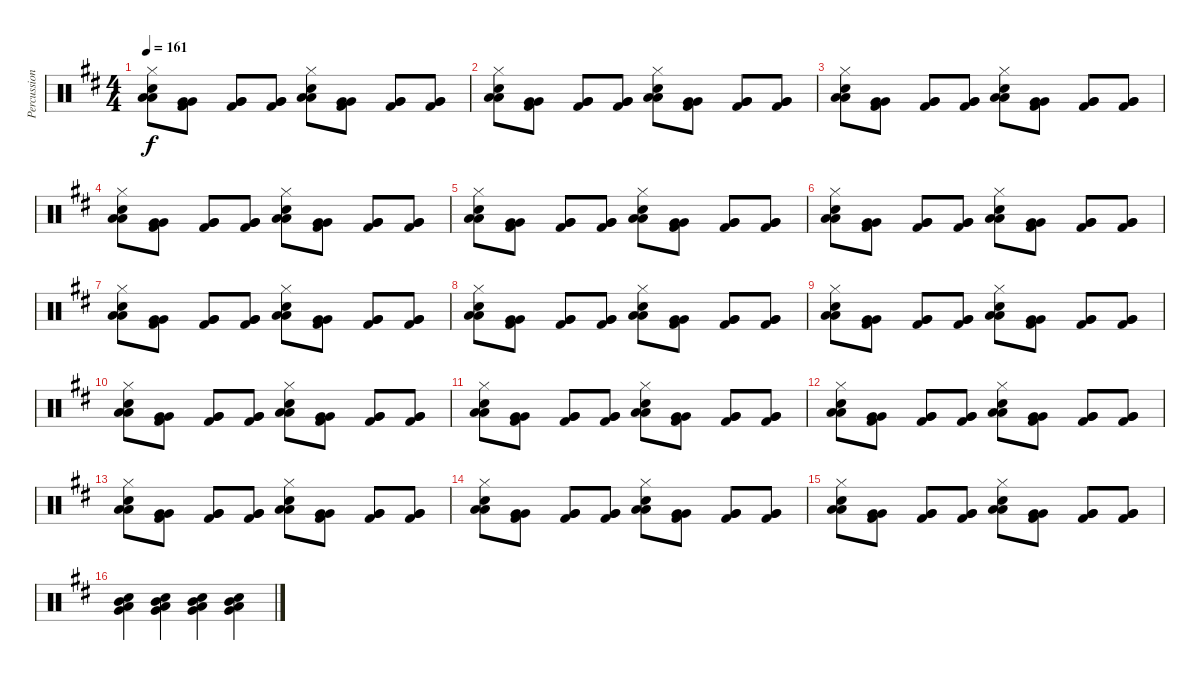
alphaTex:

\track ("Percussion" "Percussion") {instrument percussion}
\staff {score}
\articulation defaults
\ts (4 4)
\tempo 161
\clef neutral
\ks d
("Hi-Hat (closed)" "Low Floor Tom (hit)" "Low Floor Tom (hit)" "Electric Snare (hit)").8{dy f} ("Kick (hit) 2" "Very Low Tom (hit)" "Very Low Tom (hit)").8 ("Kick (hit) 2" "Very Low Tom (hit)" "Very Low Tom (hit)").8 ("Kick (hit) 2" "Very Low Tom (hit)" "Very Low Tom (hit)").8 ("Hi-Hat (closed)" "Low Tom (hit)" "Low Tom (hit)" "Electric Snare (hit)").8 ("Kick (hit) 2" "Very Low Tom (hit)" "Very Low Tom (hit)").8 ("Kick (hit) 2" "Very Low Tom (hit)" "Very Low Tom (hit)").8 ("Kick (hit) 2" "Very Low Tom (hit)" "Very Low Tom (hit)").8 |
("Hi-Hat (closed)" "Low Floor Tom (hit)" "Low Floor Tom (hit)" "Electric Snare (hit)").8 ("Kick (hit) 2" "Very Low Tom (hit)" "Very Low Tom (hit)").8 ("Kick (hit) 2" "Very Low Tom (hit)" "Very Low Tom (hit)").8 ("Kick (hit) 2" "Very Low Tom (hit)" "Very Low Tom (hit)").8 ("Hi-Hat (closed)" "Low Tom (hit)" "Low Tom (hit)" "Electric Snare (hit)").8 ("Kick (hit) 2" "Very Low Tom (hit)" "Very Low Tom (hit)").8 ("Kick (hit) 2" "Very Low Tom (hit)" "Very Low Tom (hit)").8 ("Kick (hit) 2" "Very Low Tom (hit)" "Very Low Tom (hit)").8 |
("Hi-Hat (closed)" "Low Floor Tom (hit)" "Low Floor Tom (hit)" "Electric Snare (hit)").8 ("Kick (hit) 2" "Very Low Tom (hit)" "Very Low Tom (hit)").8 ("Kick (hit) 2" "Very Low Tom (hit)" "Very Low Tom (hit)").8 ("Kick (hit) 2" "Very Low Tom (hit)" "Very Low Tom (hit)").8 ("Hi-Hat (closed)" "Low Tom (hit)" "Low Tom (hit)" "Electric Snare (hit)").8 ("Kick (hit) 2" "Very Low Tom (hit)" "Very Low Tom (hit)").8 ("Kick (hit) 2" "Very Low Tom (hit)" "Very Low Tom (hit)").8 ("Kick (hit) 2" "Very Low Tom (hit)" "Very Low Tom (hit)").8 |
("Hi-Hat (closed)" "Low Floor Tom (hit)" "Low Floor Tom (hit)" "Electric Snare (hit)").8 ("Kick (hit) 2" "Very Low Tom (hit)" "Very Low Tom (hit)").8 ("Kick (hit) 2" "Very Low Tom (hit)" "Very Low Tom (hit)").8 ("Kick (hit) 2" "Very Low Tom (hit)" "Very Low Tom (hit)").8 ("Hi-Hat (closed)" "Low Tom (hit)" "Low Tom (hit)" "Electric Snare (hit)").8 ("Kick (hit) 2" "Very Low Tom (hit)" "Very Low Tom (hit)").8 ("Kick (hit) 2" "Very Low Tom (hit)" "Very Low Tom (hit)").8 ("Kick (hit) 2" "Very Low Tom (hit)" "Very Low Tom (hit)").8 |
("Hi-Hat (closed)" "Low Floor Tom (hit)" "Low Floor Tom (hit)" "Electric Snare (hit)").8 ("Kick (hit) 2" "Very Low Tom (hit)" "Very Low Tom (hit)").8 ("Kick (hit) 2" "Very Low Tom (hit)" "Very Low Tom (hit)").8 ("Kick (hit) 2" "Very Low Tom (hit)" "Very Low Tom (hit)").8 ("Hi-Hat (closed)" "Low Tom (hit)" "Low Tom (hit)" "Electric Snare (hit)").8 ("Kick (hit) 2" "Very Low Tom (hit)" "Very Low Tom (hit)").8 ("Kick (hit) 2" "Very Low Tom (hit)" "Very Low Tom (hit)").8 ("Kick (hit) 2" "Very Low Tom (hit)" "Very Low Tom (hit)").8 |
("Hi-Hat (closed)" "Low Floor Tom (hit)" "Low Floor Tom (hit)" "Electric Snare (hit)").8 ("Kick (hit) 2" "Very Low Tom (hit)" "Very Low Tom (hit)").8 ("Kick (hit) 2" "Very Low Tom (hit)" "Very Low Tom (hit)").8 ("Kick (hit) 2" "Very Low Tom (hit)" "Very Low Tom (hit)").8 ("Hi-Hat (closed)" "Low Tom (hit)" "Low Tom (hit)" "Electric Snare (hit)").8 ("Kick (hit) 2" "Very Low Tom (hit)" "Very Low Tom (hit)").8 ("Kick (hit) 2" "Very Low Tom (hit)" "Very Low Tom (hit)").8 ("Kick (hit) 2" "Very Low Tom (hit)" "Very Low Tom (hit)").8 |
("Hi-Hat (closed)" "Low Floor Tom (hit)" "Low Floor Tom (hit)" "Electric Snare (hit)").8 ("Kick (hit) 2" "Very Low Tom (hit)" "Very Low Tom (hit)").8 ("Kick (hit) 2" "Very Low Tom (hit)" "Very Low Tom (hit)").8 ("Kick (hit) 2" "Very Low Tom (hit)" "Very Low Tom (hit)").8 ("Hi-Hat (closed)" "Low Tom (hit)" "Low Tom (hit)" "Electric Snare (hit)").8 ("Kick (hit) 2" "Very Low Tom (hit)" "Very Low Tom (hit)").8 ("Kick (hit) 2" "Very Low Tom (hit)" "Very Low Tom (hit)").8 ("Kick (hit) 2" "Very Low Tom (hit)" "Very Low Tom (hit)").8 |
("Hi-Hat (closed)" "Low Floor Tom (hit)" "Low Floor Tom (hit)" "Electric Snare (hit)").8 ("Kick (hit) 2" "Very Low Tom (hit)" "Very Low Tom (hit)").8 ("Kick (hit) 2" "Very Low Tom (hit)" "Very Low Tom (hit)").8 ("Kick (hit) 2" "Very Low Tom (hit)" "Very Low Tom (hit)").8 ("Hi-Hat (closed)" "Low Tom (hit)" "Low Tom (hit)" "Electric Snare (hit)").8 ("Kick (hit) 2" "Very Low Tom (hit)" "Very Low Tom (hit)").8 ("Kick (hit) 2" "Very Low Tom (hit)" "Very Low Tom (hit)").8 ("Kick (hit) 2" "Very Low Tom (hit)" "Very Low Tom (hit)").8 |
("Hi-Hat (closed)" "Low Floor Tom (hit)" "Low Floor Tom (hit)" "Electric Snare (hit)").8 ("Kick (hit) 2" "Very Low Tom (hit)" "Very Low Tom (hit)").8 ("Kick (hit) 2" "Very Low Tom (hit)" "Very Low Tom (hit)").8 ("Kick (hit) 2" "Very Low Tom (hit)" "Very Low Tom (hit)").8 ("Hi-Hat (closed)" "Low Tom (hit)" "Low Tom (hit)" "Electric Snare (hit)").8 ("Kick (hit) 2" "Very Low Tom (hit)" "Very Low Tom (hit)").8 ("Kick (hit) 2" "Very Low Tom (hit)" "Very Low Tom (hit)").8 ("Kick (hit) 2" "Very Low Tom (hit)" "Very Low Tom (hit)").8 |
("Hi-Hat (closed)" "Low Floor Tom (hit)" "Low Floor Tom (hit)" "Electric Snare (hit)").8 ("Kick (hit) 2" "Very Low Tom (hit)" "Very Low Tom (hit)").8 ("Kick (hit) 2" "Very Low Tom (hit)" "Very Low Tom (hit)").8 ("Kick (hit) 2" "Very Low Tom (hit)" "Very Low Tom (hit)").8 ("Hi-Hat (closed)" "Low Tom (hit)" "Low Tom (hit)" "Electric Snare (hit)").8 ("Kick (hit) 2" "Very Low Tom (hit)" "Very Low Tom (hit)").8 ("Kick (hit) 2" "Very Low Tom (hit)" "Very Low Tom (hit)").8 ("Kick (hit) 2" "Very Low Tom (hit)" "Very Low Tom (hit)").8 |
("Hi-Hat (closed)" "Low Floor Tom (hit)" "Low Floor Tom (hit)" "Electric Snare (hit)").8 ("Kick (hit) 2" "Very Low Tom (hit)" "Very Low Tom (hit)").8 ("Kick (hit) 2" "Very Low Tom (hit)" "Very Low Tom (hit)").8 ("Kick (hit) 2" "Very Low Tom (hit)" "Very Low Tom (hit)").8 ("Hi-Hat (closed)" "Low Tom (hit)" "Low Tom (hit)" "Electric Snare (hit)").8 ("Kick (hit) 2" "Very Low Tom (hit)" "Very Low Tom (hit)").8 ("Kick (hit) 2" "Very Low Tom (hit)" "Very Low Tom (hit)").8 ("Kick (hit) 2" "Very Low Tom (hit)" "Very Low Tom (hit)").8 |
("Hi-Hat (closed)" "Low Floor Tom (hit)" "Low Floor Tom (hit)" "Electric Snare (hit)").8 ("Kick (hit) 2" "Very Low Tom (hit)" "Very Low Tom (hit)").8 ("Kick (hit) 2" "Very Low Tom (hit)" "Very Low Tom (hit)").8 ("Kick (hit) 2" "Very Low Tom (hit)" "Very Low Tom (hit)").8 ("Hi-Hat (closed)" "Low Tom (hit)" "Low Tom (hit)" "Electric Snare (hit)").8 ("Kick (hit) 2" "Very Low Tom (hit)" "Very Low Tom (hit)").8 ("Kick (hit) 2" "Very Low Tom (hit)" "Very Low Tom (hit)").8 ("Kick (hit) 2" "Very Low Tom (hit)" "Very Low Tom (hit)").8 |
("Hi-Hat (closed)" "Low Floor Tom (hit)" "Low Floor Tom (hit)" "Electric Snare (hit)").8 ("Kick (hit) 2" "Very Low Tom (hit)" "Very Low Tom (hit)").8 ("Kick (hit) 2" "Very Low Tom (hit)" "Very Low Tom (hit)").8 ("Kick (hit) 2" "Very Low Tom (hit)" "Very Low Tom (hit)").8 ("Hi-Hat (closed)" "Low Tom (hit)" "Low Tom (hit)" "Electric Snare (hit)").8 ("Kick (hit) 2" "Very Low Tom (hit)" "Very Low Tom (hit)").8 ("Kick (hit) 2" "Very Low Tom (hit)" "Very Low Tom (hit)").8 ("Kick (hit) 2" "Very Low Tom (hit)" "Very Low Tom (hit)").8 |
("Hi-Hat (closed)" "Low Floor Tom (hit)" "Low Floor Tom (hit)" "Electric Snare (hit)").8 ("Kick (hit) 2" "Very Low Tom (hit)" "Very Low Tom (hit)").8 ("Kick (hit) 2" "Very Low Tom (hit)" "Very Low Tom (hit)").8 ("Kick (hit) 2" "Very Low Tom (hit)" "Very Low Tom (hit)").8 ("Hi-Hat (closed)" "Low Tom (hit)" "Low Tom (hit)" "Electric Snare (hit)").8 ("Kick (hit) 2" "Very Low Tom (hit)" "Very Low Tom (hit)").8 ("Kick (hit) 2" "Very Low Tom (hit)" "Very Low Tom (hit)").8 ("Kick (hit) 2" "Very Low Tom (hit)" "Very Low Tom (hit)").8 |
("Hi-Hat (closed)" "Low Floor Tom (hit)" "Low Floor Tom (hit)" "Electric Snare (hit)").8 ("Kick (hit) 2" "Very Low Tom (hit)" "Very Low Tom (hit)").8 ("Kick (hit) 2" "Very Low Tom (hit)" "Very Low Tom (hit)").8 ("Kick (hit) 2" "Very Low Tom (hit)" "Very Low Tom (hit)").8 ("Hi-Hat (closed)" "Low Tom (hit)" "Low Tom (hit)" "Electric Snare (hit)").8 ("Kick (hit) 2" "Very Low Tom (hit)" "Very Low Tom (hit)").8 ("Kick (hit) 2" "Very Low Tom (hit)" "Very Low Tom (hit)").8 ("Kick (hit) 2" "Very Low Tom (hit)" "Very Low Tom (hit)").8 |
("Low Tom (hit)" "Mid Tom (hit)" "Electric Snare (hit)" "Very Low Tom (hit)").4 ("Low Tom (hit)" "Mid Tom (hit)" "Electric Snare (hit)" "Very Low Tom (hit)").4 ("Low Tom (hit)" "Mid Tom (hit)" "Electric Snare (hit)" "Very Low Tom (hit)").4 ("Low Tom (hit)" "Mid Tom (hit)" "Electric Snare (hit)" "Very Low Tom (hit)").4
